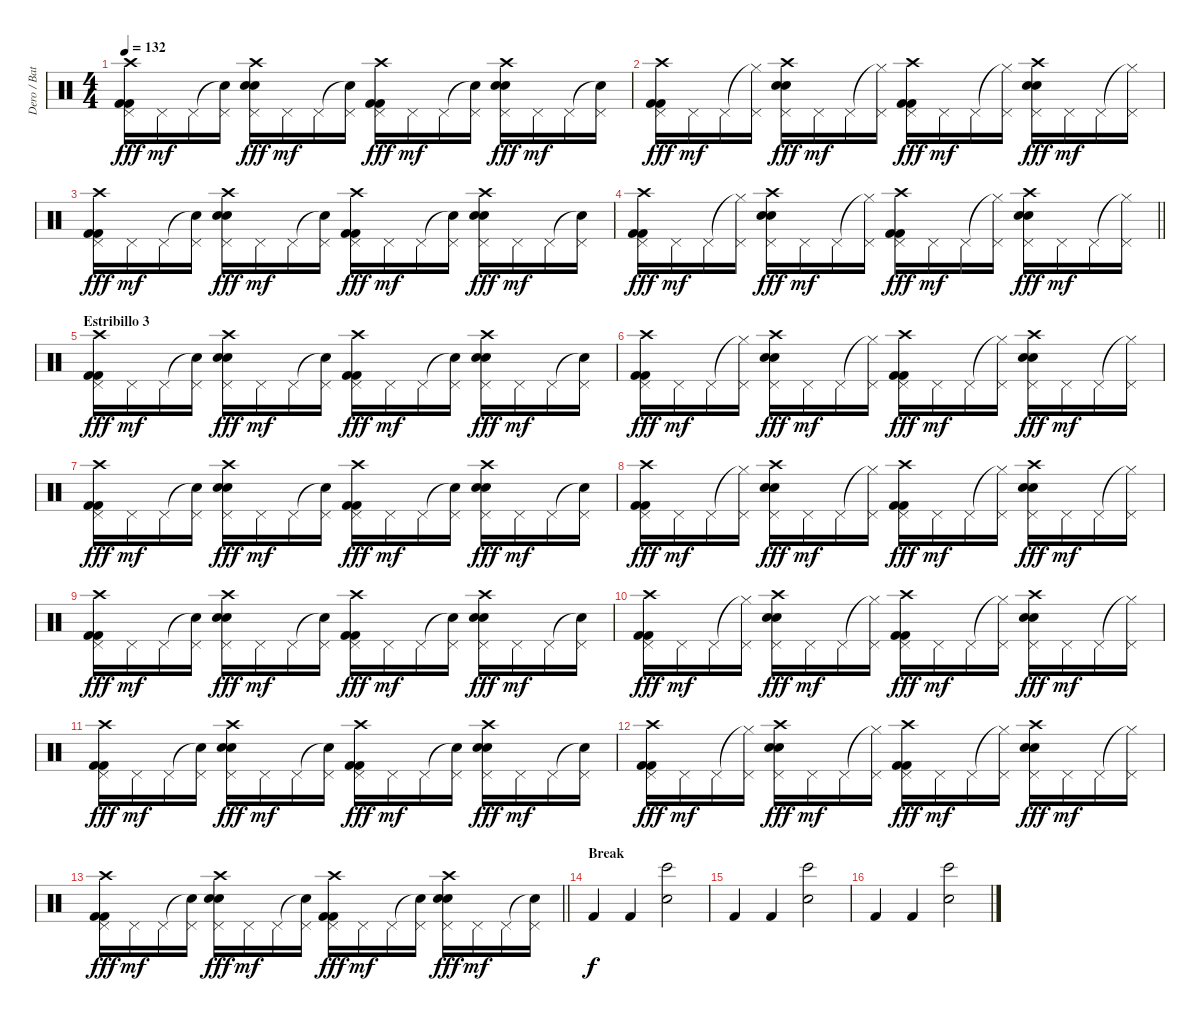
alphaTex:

\track ("Dero / Bateria" "Dero / Bat") {instrument percussion}
\staff {score}
\articulation defaults
\ts (4 4)
\tempo 132
\clef neutral
\ks c
("Crash high (hit)" "Pedal Hi-Hat (hit)" "Kick (hit) 2" "Kick (hit) 2").16{dy fff} "Pedal Hi-Hat (hit)".16{dy mf} "Pedal Hi-Hat (hit)".16 ("Snare (hit)"{t} "Pedal Hi-Hat (hit)").16 ("Crash high (hit)" "Pedal Hi-Hat (hit)" "Electric Snare (hit)" "Electric Snare (hit)").16{dy fff} "Pedal Hi-Hat (hit)".16{dy mf} "Pedal Hi-Hat (hit)".16 ("Snare (hit)"{t} "Pedal Hi-Hat (hit)").16 ("Crash high (hit)" "Pedal Hi-Hat (hit)" "Kick (hit) 2" "Kick (hit) 2").16{dy fff} "Pedal Hi-Hat (hit)".16{dy mf} "Pedal Hi-Hat (hit)".16 ("Snare (hit)"{t} "Pedal Hi-Hat (hit)").16 ("Crash high (hit)" "Pedal Hi-Hat (hit)" "Electric Snare (hit)" "Electric Snare (hit)").16{dy fff} "Pedal Hi-Hat (hit)".16{dy mf} "Pedal Hi-Hat (hit)".16 ("Snare (hit)"{t} "Pedal Hi-Hat (hit)").16 |
("Crash high (hit)" "Pedal Hi-Hat (hit)" "Kick (hit) 2" "Kick (hit) 2").16{dy fff} "Pedal Hi-Hat (hit)".16{dy mf} "Pedal Hi-Hat (hit)".16 ("Hi-Hat (closed)"{t} "Pedal Hi-Hat (hit)").16 ("Crash high (hit)" "Pedal Hi-Hat (hit)" "Electric Snare (hit)" "Electric Snare (hit)").16{dy fff} "Pedal Hi-Hat (hit)".16{dy mf} "Pedal Hi-Hat (hit)".16 ("Hi-Hat (closed)"{t} "Pedal Hi-Hat (hit)").16 ("Crash high (hit)" "Pedal Hi-Hat (hit)" "Kick (hit) 2" "Kick (hit) 2").16{dy fff} "Pedal Hi-Hat (hit)".16{dy mf} "Pedal Hi-Hat (hit)".16 ("Hi-Hat (closed)"{t} "Pedal Hi-Hat (hit)").16 ("Crash high (hit)" "Pedal Hi-Hat (hit)" "Electric Snare (hit)" "Electric Snare (hit)").16{dy fff} "Pedal Hi-Hat (hit)".16{dy mf} "Pedal Hi-Hat (hit)".16 ("Hi-Hat (closed)"{t} "Pedal Hi-Hat (hit)").16 |
("Crash high (hit)" "Pedal Hi-Hat (hit)" "Kick (hit) 2" "Kick (hit) 2").16{dy fff} "Pedal Hi-Hat (hit)".16{dy mf} "Pedal Hi-Hat (hit)".16 ("Snare (hit)"{t} "Pedal Hi-Hat (hit)").16 ("Crash high (hit)" "Pedal Hi-Hat (hit)" "Electric Snare (hit)" "Electric Snare (hit)").16{dy fff} "Pedal Hi-Hat (hit)".16{dy mf} "Pedal Hi-Hat (hit)".16 ("Snare (hit)"{t} "Pedal Hi-Hat (hit)").16 ("Crash high (hit)" "Pedal Hi-Hat (hit)" "Kick (hit) 2" "Kick (hit) 2").16{dy fff} "Pedal Hi-Hat (hit)".16{dy mf} "Pedal Hi-Hat (hit)".16 ("Snare (hit)"{t} "Pedal Hi-Hat (hit)").16 ("Crash high (hit)" "Pedal Hi-Hat (hit)" "Electric Snare (hit)" "Electric Snare (hit)").16{dy fff} "Pedal Hi-Hat (hit)".16{dy mf} "Pedal Hi-Hat (hit)".16 ("Snare (hit)"{t} "Pedal Hi-Hat (hit)").16 |
\barLineRight lightlight
("Crash high (hit)" "Pedal Hi-Hat (hit)" "Kick (hit) 2" "Kick (hit) 2").16{dy fff} "Pedal Hi-Hat (hit)".16{dy mf} "Pedal Hi-Hat (hit)".16 ("Hi-Hat (closed)"{t} "Pedal Hi-Hat (hit)").16 ("Crash high (hit)" "Pedal Hi-Hat (hit)" "Electric Snare (hit)" "Electric Snare (hit)").16{dy fff} "Pedal Hi-Hat (hit)".16{dy mf} "Pedal Hi-Hat (hit)".16 ("Hi-Hat (closed)"{t} "Pedal Hi-Hat (hit)").16 ("Crash high (hit)" "Pedal Hi-Hat (hit)" "Kick (hit) 2" "Kick (hit) 2").16{dy fff} "Pedal Hi-Hat (hit)".16{dy mf} "Pedal Hi-Hat (hit)".16 ("Hi-Hat (closed)"{t} "Pedal Hi-Hat (hit)").16 ("Crash high (hit)" "Pedal Hi-Hat (hit)" "Electric Snare (hit)" "Electric Snare (hit)").16{dy fff} "Pedal Hi-Hat (hit)".16{dy mf} "Pedal Hi-Hat (hit)".16 ("Hi-Hat (closed)"{t} "Pedal Hi-Hat (hit)").16 |
\section ("" "Estribillo 3")
("Crash high (hit)" "Pedal Hi-Hat (hit)" "Kick (hit) 2" "Kick (hit) 2").16{dy fff} "Pedal Hi-Hat (hit)".16{dy mf} "Pedal Hi-Hat (hit)".16 ("Snare (hit)"{t} "Pedal Hi-Hat (hit)").16 ("Crash high (hit)" "Pedal Hi-Hat (hit)" "Electric Snare (hit)" "Electric Snare (hit)").16{dy fff} "Pedal Hi-Hat (hit)".16{dy mf} "Pedal Hi-Hat (hit)".16 ("Snare (hit)"{t} "Pedal Hi-Hat (hit)").16 ("Crash high (hit)" "Pedal Hi-Hat (hit)" "Kick (hit) 2" "Kick (hit) 2").16{dy fff} "Pedal Hi-Hat (hit)".16{dy mf} "Pedal Hi-Hat (hit)".16 ("Snare (hit)"{t} "Pedal Hi-Hat (hit)").16 ("Crash high (hit)" "Pedal Hi-Hat (hit)" "Electric Snare (hit)" "Electric Snare (hit)").16{dy fff} "Pedal Hi-Hat (hit)".16{dy mf} "Pedal Hi-Hat (hit)".16 ("Snare (hit)"{t} "Pedal Hi-Hat (hit)").16 |
("Crash high (hit)" "Pedal Hi-Hat (hit)" "Kick (hit) 2" "Kick (hit) 2").16{dy fff} "Pedal Hi-Hat (hit)".16{dy mf} "Pedal Hi-Hat (hit)".16 ("Hi-Hat (closed)"{t} "Pedal Hi-Hat (hit)").16 ("Crash high (hit)" "Pedal Hi-Hat (hit)" "Electric Snare (hit)" "Electric Snare (hit)").16{dy fff} "Pedal Hi-Hat (hit)".16{dy mf} "Pedal Hi-Hat (hit)".16 ("Hi-Hat (closed)"{t} "Pedal Hi-Hat (hit)").16 ("Crash high (hit)" "Pedal Hi-Hat (hit)" "Kick (hit) 2" "Kick (hit) 2").16{dy fff} "Pedal Hi-Hat (hit)".16{dy mf} "Pedal Hi-Hat (hit)".16 ("Hi-Hat (closed)"{t} "Pedal Hi-Hat (hit)").16 ("Crash high (hit)" "Pedal Hi-Hat (hit)" "Electric Snare (hit)" "Electric Snare (hit)").16{dy fff} "Pedal Hi-Hat (hit)".16{dy mf} "Pedal Hi-Hat (hit)".16 ("Hi-Hat (closed)"{t} "Pedal Hi-Hat (hit)").16 |
("Crash high (hit)" "Pedal Hi-Hat (hit)" "Kick (hit) 2" "Kick (hit) 2").16{dy fff} "Pedal Hi-Hat (hit)".16{dy mf} "Pedal Hi-Hat (hit)".16 ("Snare (hit)"{t} "Pedal Hi-Hat (hit)").16 ("Crash high (hit)" "Pedal Hi-Hat (hit)" "Electric Snare (hit)" "Electric Snare (hit)").16{dy fff} "Pedal Hi-Hat (hit)".16{dy mf} "Pedal Hi-Hat (hit)".16 ("Snare (hit)"{t} "Pedal Hi-Hat (hit)").16 ("Crash high (hit)" "Pedal Hi-Hat (hit)" "Kick (hit) 2" "Kick (hit) 2").16{dy fff} "Pedal Hi-Hat (hit)".16{dy mf} "Pedal Hi-Hat (hit)".16 ("Snare (hit)"{t} "Pedal Hi-Hat (hit)").16 ("Crash high (hit)" "Pedal Hi-Hat (hit)" "Electric Snare (hit)" "Electric Snare (hit)").16{dy fff} "Pedal Hi-Hat (hit)".16{dy mf} "Pedal Hi-Hat (hit)".16 ("Snare (hit)"{t} "Pedal Hi-Hat (hit)").16 |
("Crash high (hit)" "Pedal Hi-Hat (hit)" "Kick (hit) 2" "Kick (hit) 2").16{dy fff} "Pedal Hi-Hat (hit)".16{dy mf} "Pedal Hi-Hat (hit)".16 ("Hi-Hat (closed)"{t} "Pedal Hi-Hat (hit)").16 ("Crash high (hit)" "Pedal Hi-Hat (hit)" "Electric Snare (hit)" "Electric Snare (hit)").16{dy fff} "Pedal Hi-Hat (hit)".16{dy mf} "Pedal Hi-Hat (hit)".16 ("Hi-Hat (closed)"{t} "Pedal Hi-Hat (hit)").16 ("Crash high (hit)" "Pedal Hi-Hat (hit)" "Kick (hit) 2" "Kick (hit) 2").16{dy fff} "Pedal Hi-Hat (hit)".16{dy mf} "Pedal Hi-Hat (hit)".16 ("Hi-Hat (closed)"{t} "Pedal Hi-Hat (hit)").16 ("Crash high (hit)" "Pedal Hi-Hat (hit)" "Electric Snare (hit)" "Electric Snare (hit)").16{dy fff} "Pedal Hi-Hat (hit)".16{dy mf} "Pedal Hi-Hat (hit)".16 ("Hi-Hat (closed)"{t} "Pedal Hi-Hat (hit)").16 |
("Crash high (hit)" "Pedal Hi-Hat (hit)" "Kick (hit) 2" "Kick (hit) 2").16{dy fff} "Pedal Hi-Hat (hit)".16{dy mf} "Pedal Hi-Hat (hit)".16 ("Snare (hit)"{t} "Pedal Hi-Hat (hit)").16 ("Crash high (hit)" "Pedal Hi-Hat (hit)" "Electric Snare (hit)" "Electric Snare (hit)").16{dy fff} "Pedal Hi-Hat (hit)".16{dy mf} "Pedal Hi-Hat (hit)".16 ("Snare (hit)"{t} "Pedal Hi-Hat (hit)").16 ("Crash high (hit)" "Pedal Hi-Hat (hit)" "Kick (hit) 2" "Kick (hit) 2").16{dy fff} "Pedal Hi-Hat (hit)".16{dy mf} "Pedal Hi-Hat (hit)".16 ("Snare (hit)"{t} "Pedal Hi-Hat (hit)").16 ("Crash high (hit)" "Pedal Hi-Hat (hit)" "Electric Snare (hit)" "Electric Snare (hit)").16{dy fff} "Pedal Hi-Hat (hit)".16{dy mf} "Pedal Hi-Hat (hit)".16 ("Snare (hit)"{t} "Pedal Hi-Hat (hit)").16 |
("Crash high (hit)" "Pedal Hi-Hat (hit)" "Kick (hit) 2" "Kick (hit) 2").16{dy fff} "Pedal Hi-Hat (hit)".16{dy mf} "Pedal Hi-Hat (hit)".16 ("Hi-Hat (closed)"{t} "Pedal Hi-Hat (hit)").16 ("Crash high (hit)" "Pedal Hi-Hat (hit)" "Electric Snare (hit)" "Electric Snare (hit)").16{dy fff} "Pedal Hi-Hat (hit)".16{dy mf} "Pedal Hi-Hat (hit)".16 ("Hi-Hat (closed)"{t} "Pedal Hi-Hat (hit)").16 ("Crash high (hit)" "Pedal Hi-Hat (hit)" "Kick (hit) 2" "Kick (hit) 2").16{dy fff} "Pedal Hi-Hat (hit)".16{dy mf} "Pedal Hi-Hat (hit)".16 ("Hi-Hat (closed)"{t} "Pedal Hi-Hat (hit)").16 ("Crash high (hit)" "Pedal Hi-Hat (hit)" "Electric Snare (hit)" "Electric Snare (hit)").16{dy fff} "Pedal Hi-Hat (hit)".16{dy mf} "Pedal Hi-Hat (hit)".16 ("Hi-Hat (closed)"{t} "Pedal Hi-Hat (hit)").16 |
("Crash high (hit)" "Pedal Hi-Hat (hit)" "Kick (hit) 2" "Kick (hit) 2").16{dy fff} "Pedal Hi-Hat (hit)".16{dy mf} "Pedal Hi-Hat (hit)".16 ("Snare (hit)"{t} "Pedal Hi-Hat (hit)").16 ("Crash high (hit)" "Pedal Hi-Hat (hit)" "Electric Snare (hit)" "Electric Snare (hit)").16{dy fff} "Pedal Hi-Hat (hit)".16{dy mf} "Pedal Hi-Hat (hit)".16 ("Snare (hit)"{t} "Pedal Hi-Hat (hit)").16 ("Crash high (hit)" "Pedal Hi-Hat (hit)" "Kick (hit) 2" "Kick (hit) 2").16{dy fff} "Pedal Hi-Hat (hit)".16{dy mf} "Pedal Hi-Hat (hit)".16 ("Snare (hit)"{t} "Pedal Hi-Hat (hit)").16 ("Crash high (hit)" "Pedal Hi-Hat (hit)" "Electric Snare (hit)" "Electric Snare (hit)").16{dy fff} "Pedal Hi-Hat (hit)".16{dy mf} "Pedal Hi-Hat (hit)".16 ("Snare (hit)"{t} "Pedal Hi-Hat (hit)").16 |
("Crash high (hit)" "Pedal Hi-Hat (hit)" "Kick (hit) 2" "Kick (hit) 2").16{dy fff} "Pedal Hi-Hat (hit)".16{dy mf} "Pedal Hi-Hat (hit)".16 ("Hi-Hat (closed)"{t} "Pedal Hi-Hat (hit)").16 ("Crash high (hit)" "Pedal Hi-Hat (hit)" "Electric Snare (hit)" "Electric Snare (hit)").16{dy fff} "Pedal Hi-Hat (hit)".16{dy mf} "Pedal Hi-Hat (hit)".16 ("Hi-Hat (closed)"{t} "Pedal Hi-Hat (hit)").16 ("Crash high (hit)" "Pedal Hi-Hat (hit)" "Kick (hit) 2" "Kick (hit) 2").16{dy fff} "Pedal Hi-Hat (hit)".16{dy mf} "Pedal Hi-Hat (hit)".16 ("Hi-Hat (closed)"{t} "Pedal Hi-Hat (hit)").16 ("Crash high (hit)" "Pedal Hi-Hat (hit)" "Electric Snare (hit)" "Electric Snare (hit)").16{dy fff} "Pedal Hi-Hat (hit)".16{dy mf} "Pedal Hi-Hat (hit)".16 ("Hi-Hat (closed)"{t} "Pedal Hi-Hat (hit)").16 |
\barLineRight lightlight
("Crash high (hit)" "Pedal Hi-Hat (hit)" "Kick (hit) 2" "Kick (hit) 2").16{dy fff} "Pedal Hi-Hat (hit)".16{dy mf} "Pedal Hi-Hat (hit)".16 ("Snare (hit)"{t} "Pedal Hi-Hat (hit)").16 ("Crash high (hit)" "Pedal Hi-Hat (hit)" "Electric Snare (hit)" "Electric Snare (hit)").16{dy fff} "Pedal Hi-Hat (hit)".16{dy mf} "Pedal Hi-Hat (hit)".16 ("Snare (hit)"{t} "Pedal Hi-Hat (hit)").16 ("Crash high (hit)" "Pedal Hi-Hat (hit)" "Kick (hit) 2" "Kick (hit) 2").16{dy fff} "Pedal Hi-Hat (hit)".16{dy mf} "Pedal Hi-Hat (hit)".16 ("Snare (hit)"{t} "Pedal Hi-Hat (hit)").16 ("Crash high (hit)" "Pedal Hi-Hat (hit)" "Electric Snare (hit)" "Electric Snare (hit)").16{dy fff} "Pedal Hi-Hat (hit)".16{dy mf} "Pedal Hi-Hat (hit)".16 ("Snare (hit)"{t} "Pedal Hi-Hat (hit)").16 |
\section ("" "Break")
"Kick (hit) 2".4{dy f} "Kick (hit) 2".4 ("Bongo High (hit)" "Snare (hit) 2").2 |
"Kick (hit) 2".4 "Kick (hit) 2".4 ("Bongo High (hit)" "Snare (hit) 2").2 |
"Kick (hit) 2".4 "Kick (hit) 2".4 ("Bongo High (hit)" "Snare (hit) 2").2
